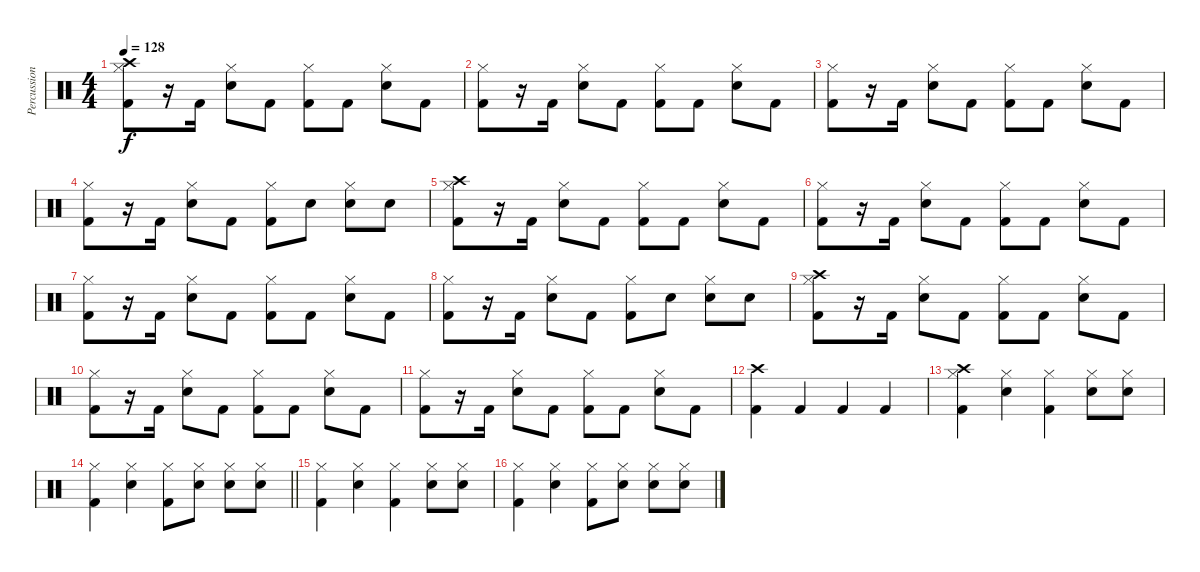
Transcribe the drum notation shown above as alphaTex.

\track ("Percussion" "Percussion") {instrument percussion}
\staff {score}
\articulation defaults
\ts (4 4)
\tempo 128
\clef neutral
\ks c
("Crash high (hit)" "Hi-Hat (closed)" "Kick (hit) 2").8{dy f} r.16 "Kick (hit) 2".16 ("Hi-Hat (closed)" "Snare (hit) 2").8 "Kick (hit) 2".8 ("Hi-Hat (closed)" "Kick (hit) 2").8 "Kick (hit) 2".8 ("Hi-Hat (closed)" "Snare (hit) 2").8 "Kick (hit) 2".8 |
("Hi-Hat (closed)" "Kick (hit) 2").8 r.16 "Kick (hit) 2".16 ("Hi-Hat (closed)" "Snare (hit) 2").8 "Kick (hit) 2".8 ("Hi-Hat (closed)" "Kick (hit) 2").8 "Kick (hit) 2".8 ("Hi-Hat (closed)" "Snare (hit) 2").8 "Kick (hit) 2".8 |
("Hi-Hat (closed)" "Kick (hit) 2").8 r.16 "Kick (hit) 2".16 ("Hi-Hat (closed)" "Snare (hit) 2").8 "Kick (hit) 2".8 ("Hi-Hat (closed)" "Kick (hit) 2").8 "Kick (hit) 2".8 ("Hi-Hat (closed)" "Snare (hit) 2").8 "Kick (hit) 2".8 |
("Hi-Hat (closed)" "Kick (hit) 2").8 r.16 "Kick (hit) 2".16 ("Hi-Hat (closed)" "Snare (hit) 2").8 "Kick (hit) 2".8 ("Hi-Hat (closed)" "Kick (hit) 2").8 "Snare (hit) 2".8 ("Hi-Hat (closed)" "Snare (hit) 2").8 "Snare (hit) 2".8 |
("Crash high (hit)" "Hi-Hat (closed)" "Kick (hit) 2").8 r.16 "Kick (hit) 2".16 ("Hi-Hat (closed)" "Snare (hit) 2").8 "Kick (hit) 2".8 ("Hi-Hat (closed)" "Kick (hit) 2").8 "Kick (hit) 2".8 ("Hi-Hat (closed)" "Snare (hit) 2").8 "Kick (hit) 2".8 |
("Hi-Hat (closed)" "Kick (hit) 2").8 r.16 "Kick (hit) 2".16 ("Hi-Hat (closed)" "Snare (hit) 2").8 "Kick (hit) 2".8 ("Hi-Hat (closed)" "Kick (hit) 2").8 "Kick (hit) 2".8 ("Hi-Hat (closed)" "Snare (hit) 2").8 "Kick (hit) 2".8 |
("Hi-Hat (closed)" "Kick (hit) 2").8 r.16 "Kick (hit) 2".16 ("Hi-Hat (closed)" "Snare (hit) 2").8 "Kick (hit) 2".8 ("Hi-Hat (closed)" "Kick (hit) 2").8 "Kick (hit) 2".8 ("Hi-Hat (closed)" "Snare (hit) 2").8 "Kick (hit) 2".8 |
("Hi-Hat (closed)" "Kick (hit) 2").8 r.16 "Kick (hit) 2".16 ("Hi-Hat (closed)" "Snare (hit) 2").8 "Kick (hit) 2".8 ("Hi-Hat (closed)" "Kick (hit) 2").8 "Snare (hit) 2".8 ("Hi-Hat (closed)" "Snare (hit) 2").8 "Snare (hit) 2".8 |
("Crash high (hit)" "Hi-Hat (closed)" "Kick (hit) 2").8 r.16 "Kick (hit) 2".16 ("Hi-Hat (closed)" "Snare (hit) 2").8 "Kick (hit) 2".8 ("Hi-Hat (closed)" "Kick (hit) 2").8 "Kick (hit) 2".8 ("Hi-Hat (closed)" "Snare (hit) 2").8 "Kick (hit) 2".8 |
("Hi-Hat (closed)" "Kick (hit) 2").8 r.16 "Kick (hit) 2".16 ("Hi-Hat (closed)" "Snare (hit) 2").8 "Kick (hit) 2".8 ("Hi-Hat (closed)" "Kick (hit) 2").8 "Kick (hit) 2".8 ("Hi-Hat (closed)" "Snare (hit) 2").8 "Kick (hit) 2".8 |
("Hi-Hat (closed)" "Kick (hit) 2").8 r.16 "Kick (hit) 2".16 ("Hi-Hat (closed)" "Snare (hit) 2").8 "Kick (hit) 2".8 ("Hi-Hat (closed)" "Kick (hit) 2").8 "Kick (hit) 2".8 ("Hi-Hat (closed)" "Snare (hit) 2").8 "Kick (hit) 2".8 |
("Crash high (hit)" "Kick (hit) 2").4 "Kick (hit) 2".4 "Kick (hit) 2".4 "Kick (hit) 2".4 |
("Crash high (hit)" "Hi-Hat (closed)" "Kick (hit) 2").4 ("Hi-Hat (closed)" "Snare (hit) 2").4 ("Hi-Hat (closed)" "Kick (hit) 2").4 ("Hi-Hat (closed)" "Snare (hit) 2").8 ("Hi-Hat (closed)" "Snare (hit) 2").8 |
\barLineRight lightlight
("Hi-Hat (closed)" "Kick (hit) 2").4 ("Hi-Hat (closed)" "Snare (hit) 2").4 ("Hi-Hat (closed)" "Kick (hit) 2").8 ("Hi-Hat (closed)" "Snare (hit) 2").8 ("Hi-Hat (closed)" "Snare (hit) 2").8 ("Hi-Hat (closed)" "Snare (hit) 2").8 |
("Hi-Hat (closed)" "Kick (hit) 2").4 ("Hi-Hat (closed)" "Snare (hit) 2").4 ("Hi-Hat (closed)" "Kick (hit) 2").4 ("Hi-Hat (closed)" "Snare (hit) 2").8 ("Hi-Hat (closed)" "Snare (hit) 2").8 |
("Hi-Hat (closed)" "Kick (hit) 2").4 ("Hi-Hat (closed)" "Snare (hit) 2").4 ("Hi-Hat (closed)" "Kick (hit) 2").8 ("Hi-Hat (closed)" "Snare (hit) 2").8 ("Hi-Hat (closed)" "Snare (hit) 2").8 ("Hi-Hat (closed)" "Snare (hit) 2").8
